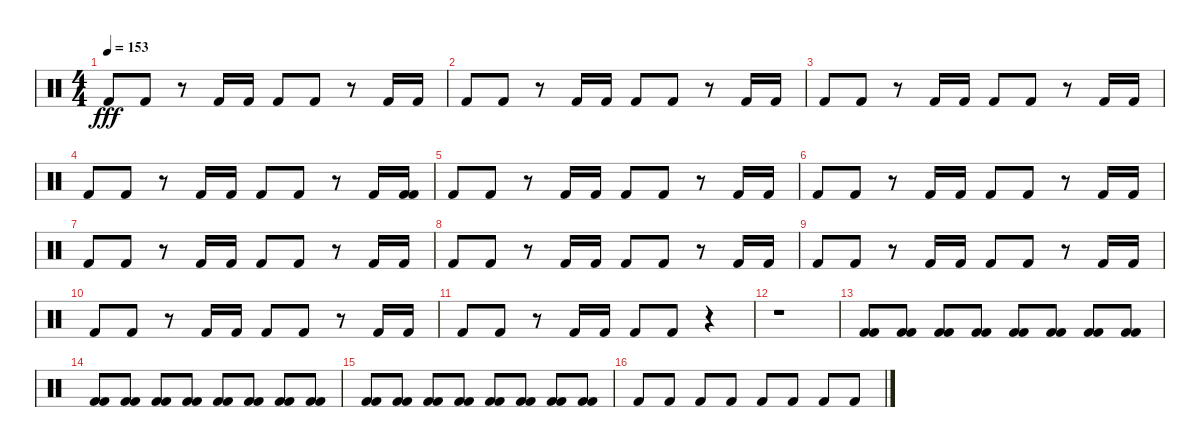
\track "" {instrument percussion}
\staff {score}
\articulation defaults
\ts (4 4)
\tempo 153
\clef neutral
\ks c "Kick (hit) 2".8{dy fff} "Kick (hit) 2".8
r.8 "Kick (hit) 2".16 "Kick (hit) 2".16 "Kick (hit) 2".8 "Kick (hit) 2".8 r.8 "Kick (hit) 2".16 "Kick (hit) 2".16 |
"Kick (hit) 2".8 "Kick (hit) 2".8 r.8 "Kick (hit) 2".16 "Kick (hit) 2".16 "Kick (hit) 2".8 "Kick (hit) 2".8 r.8 "Kick (hit) 2".16 "Kick (hit) 2".16 |
"Kick (hit) 2".8 "Kick (hit) 2".8 r.8 "Kick (hit) 2".16 "Kick (hit) 2".16 "Kick (hit) 2".8 "Kick (hit) 2".8 r.8 "Kick (hit) 2".16 "Kick (hit) 2".16 |
"Kick (hit) 2".8 "Kick (hit) 2".8 r.8 "Kick (hit) 2".16 "Kick (hit) 2".16 "Kick (hit) 2".8 "Kick (hit) 2".8 r.8 "Kick (hit) 2".16 ("Kick (hit) 2" "Kick (hit) 2").16 |
"Kick (hit) 2".8 "Kick (hit) 2".8 r.8 "Kick (hit) 2".16 "Kick (hit) 2".16 "Kick (hit) 2".8 "Kick (hit) 2".8 r.8 "Kick (hit) 2".16 "Kick (hit) 2".16 |
"Kick (hit) 2".8 "Kick (hit) 2".8 r.8 "Kick (hit) 2".16 "Kick (hit) 2".16 "Kick (hit) 2".8 "Kick (hit) 2".8 r.8 "Kick (hit) 2".16 "Kick (hit) 2".16 |
"Kick (hit) 2".8 "Kick (hit) 2".8 r.8 "Kick (hit) 2".16 "Kick (hit) 2".16 "Kick (hit) 2".8 "Kick (hit) 2".8 r.8 "Kick (hit) 2".16 "Kick (hit) 2".16 |
"Kick (hit) 2".8 "Kick (hit) 2".8 r.8 "Kick (hit) 2".16 "Kick (hit) 2".16 "Kick (hit) 2".8 "Kick (hit) 2".8 r.8 "Kick (hit) 2".16 "Kick (hit) 2".16 |
"Kick (hit) 2".8 "Kick (hit) 2".8 r.8 "Kick (hit) 2".16 "Kick (hit) 2".16 "Kick (hit) 2".8 "Kick (hit) 2".8 r.8 "Kick (hit) 2".16 "Kick (hit) 2".16 |
"Kick (hit) 2".8 "Kick (hit) 2".8 r.8 "Kick (hit) 2".16 "Kick (hit) 2".16 "Kick (hit) 2".8 "Kick (hit) 2".8 r.8 "Kick (hit) 2".16 "Kick (hit) 2".16 |
"Kick (hit) 2".8 "Kick (hit) 2".8 r.8 "Kick (hit) 2".16 "Kick (hit) 2".16 "Kick (hit) 2".8 "Kick (hit) 2".8 r.4 |
r.1 |
("Kick (hit) 2" "Kick (hit) 2").8 ("Kick (hit) 2" "Kick (hit) 2").8 ("Kick (hit) 2" "Kick (hit) 2").8 ("Kick (hit) 2" "Kick (hit) 2").8 ("Kick (hit) 2" "Kick (hit) 2").8 ("Kick (hit) 2" "Kick (hit) 2").8 ("Kick (hit) 2" "Kick (hit) 2").8 ("Kick (hit) 2" "Kick (hit) 2").8 |
("Kick (hit) 2" "Kick (hit) 2").8 ("Kick (hit) 2" "Kick (hit) 2").8 ("Kick (hit) 2" "Kick (hit) 2").8 ("Kick (hit) 2" "Kick (hit) 2").8 ("Kick (hit) 2" "Kick (hit) 2").8 ("Kick (hit) 2" "Kick (hit) 2").8 ("Kick (hit) 2" "Kick (hit) 2").8 ("Kick (hit) 2" "Kick (hit) 2").8 |
("Kick (hit) 2" "Kick (hit) 2").8 ("Kick (hit) 2" "Kick (hit) 2").8 ("Kick (hit) 2" "Kick (hit) 2").8 ("Kick (hit) 2" "Kick (hit) 2").8 ("Kick (hit) 2" "Kick (hit) 2").8 ("Kick (hit) 2" "Kick (hit) 2").8 ("Kick (hit) 2" "Kick (hit) 2").8 ("Kick (hit) 2" "Kick (hit) 2").8 |
"Kick (hit) 2".8 "Kick (hit) 2".8 "Kick (hit) 2".8 "Kick (hit) 2".8 "Kick (hit) 2".8 "Kick (hit) 2".8 "Kick (hit) 2".8 "Kick (hit) 2".8
